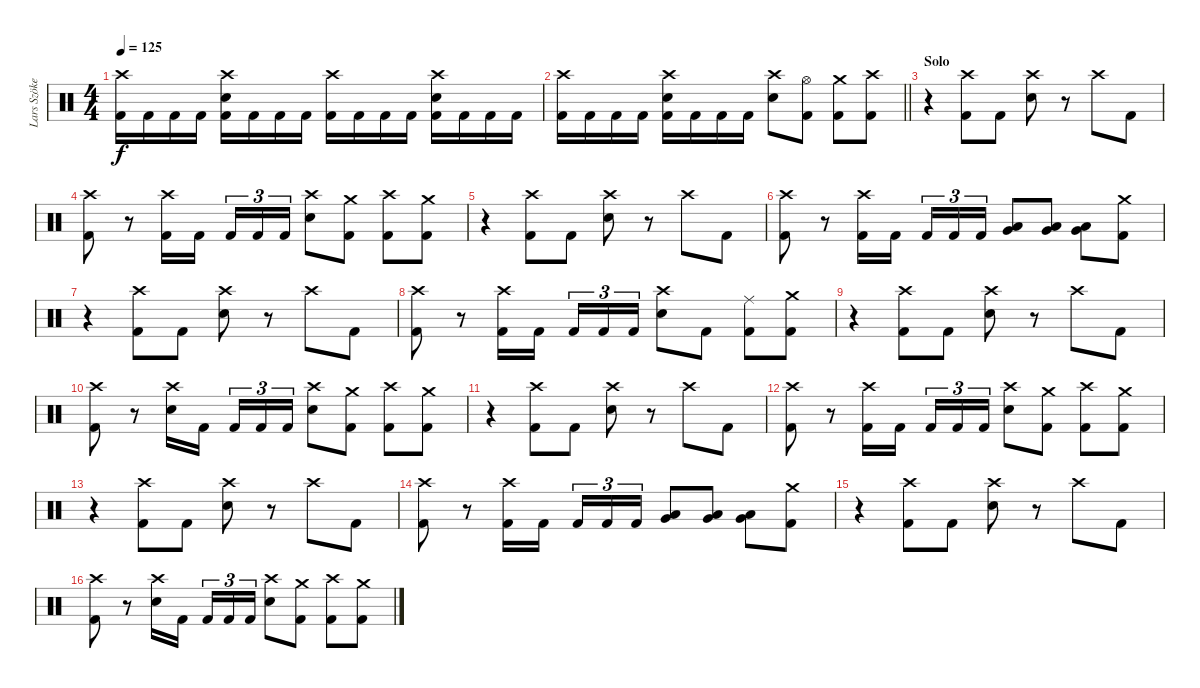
\track ("Lars Szöke" "Lars Szöke") {instrument percussion}
\staff {score}
\articulation defaults
\ts (4 4)
\tempo 125
\clef neutral
\ks c
("Crash high (hit)" "Kick (hit) 2").16{dy f} "Kick (hit) 2".16 "Kick (hit) 2".16 "Kick (hit) 2".16 ("Crash high (hit)" "Snare (hit) 2" "Kick (hit) 2").16 "Kick (hit) 2".16 "Kick (hit) 2".16 "Kick (hit) 2".16 ("Crash high (hit)" "Kick (hit) 2").16 "Kick (hit) 2".16 "Kick (hit) 2".16 "Kick (hit) 2".16 ("Crash high (hit)" "Snare (hit) 2" "Kick (hit) 2").16 "Kick (hit) 2".16 "Kick (hit) 2".16 "Kick (hit) 2".16 |
\barLineRight lightlight
("Crash high (hit)" "Kick (hit) 2").16 "Kick (hit) 2".16 "Kick (hit) 2".16 "Kick (hit) 2".16 ("Crash high (hit)" "Snare (hit) 2" "Kick (hit) 2").16 "Kick (hit) 2".16 "Kick (hit) 2".16 "Kick (hit) 2".16 ("Crash high (hit)" "Snare (hit) 2").8 ("Hi-Hat (open)" "Kick (hit) 2").8 ("Crash medium (hit)" "Kick (hit) 2").8 ("Crash high (hit)" "Kick (hit) 2").8 |
\section ("" "Solo")
r.4 ("Crash high (hit)" "Kick (hit) 2").8 "Kick (hit) 2".8 ("Crash high (hit)" "Snare (hit) 2").8 r.8 "Crash high (hit)".8 "Kick (hit) 2".8 |
("Crash high (hit)" "Kick (hit) 2").8 r.8 ("Crash high (hit)" "Kick (hit) 2").16 "Kick (hit) 2".16{beam splitsecondary} "Kick (hit) 2".16{tu (3 2)} "Kick (hit) 2".16{tu (3 2)} "Kick (hit) 2".16{tu (3 2)} ("Crash high (hit)" "Snare (hit) 2").8 ("Crash medium (hit)" "Kick (hit) 2").8 ("Crash high (hit)" "Kick (hit) 2").8 ("Crash medium (hit)" "Kick (hit) 2").8 |
r.4 ("Crash high (hit)" "Kick (hit) 2").8 "Kick (hit) 2".8 ("Crash high (hit)" "Snare (hit) 2").8 r.8 "Crash high (hit)".8 "Kick (hit) 2".8 |
("Crash high (hit)" "Kick (hit) 2").8 r.8 ("Crash high (hit)" "Kick (hit) 2").16 "Kick (hit) 2".16{beam splitsecondary} "Kick (hit) 2".16{tu (3 2)} "Kick (hit) 2".16{tu (3 2)} "Kick (hit) 2".16{tu (3 2)} ("Low Tom (hit)" "Very Low Tom (hit)").8 ("Low Tom (hit)" "Very Low Tom (hit)").8 ("Very Low Tom (hit)" "Low Floor Tom (hit)").8 ("Crash medium (hit)" "Kick (hit) 2").8 |
r.4 ("Crash high (hit)" "Kick (hit) 2").8 "Kick (hit) 2".8 ("Crash high (hit)" "Snare (hit) 2").8 r.8 "Crash high (hit)".8 "Kick (hit) 2".8 |
("Crash high (hit)" "Kick (hit) 2").8 r.8 ("Crash high (hit)" "Kick (hit) 2").16 "Kick (hit) 2".16{beam splitsecondary} "Kick (hit) 2".16{tu (3 2)} "Kick (hit) 2".16{tu (3 2)} "Kick (hit) 2".16{tu (3 2)} ("Crash high (hit)" "Snare (hit) 2").8 "Kick (hit) 2".8 ("Ride (middle)" "Kick (hit) 2").8 ("Crash medium (hit)" "Kick (hit) 2").8 |
r.4 ("Crash high (hit)" "Kick (hit) 2").8 "Kick (hit) 2".8 ("Crash high (hit)" "Snare (hit) 2").8 r.8 "Crash high (hit)".8 "Kick (hit) 2".8 |
("Crash high (hit)" "Kick (hit) 2").8 r.8 ("Crash high (hit)" "Snare (hit) 2").16 "Kick (hit) 2".16{beam splitsecondary} "Kick (hit) 2".16{tu (3 2)} "Kick (hit) 2".16{tu (3 2)} "Kick (hit) 2".16{tu (3 2)} ("Crash high (hit)" "Snare (hit) 2").8 ("Crash medium (hit)" "Kick (hit) 2").8 ("Crash high (hit)" "Kick (hit) 2").8 ("Crash medium (hit)" "Kick (hit) 2").8 |
r.4 ("Crash high (hit)" "Kick (hit) 2").8 "Kick (hit) 2".8 ("Crash high (hit)" "Snare (hit) 2").8 r.8 "Crash high (hit)".8 "Kick (hit) 2".8 |
("Crash high (hit)" "Kick (hit) 2").8 r.8 ("Crash high (hit)" "Kick (hit) 2").16 "Kick (hit) 2".16{beam splitsecondary} "Kick (hit) 2".16{tu (3 2)} "Kick (hit) 2".16{tu (3 2)} "Kick (hit) 2".16{tu (3 2)} ("Crash high (hit)" "Snare (hit) 2").8 ("Crash medium (hit)" "Kick (hit) 2").8 ("Crash high (hit)" "Kick (hit) 2").8 ("Crash medium (hit)" "Kick (hit) 2").8 |
r.4 ("Crash high (hit)" "Kick (hit) 2").8 "Kick (hit) 2".8 ("Crash high (hit)" "Snare (hit) 2").8 r.8 "Crash high (hit)".8 "Kick (hit) 2".8 |
("Crash high (hit)" "Kick (hit) 2").8 r.8 ("Crash high (hit)" "Kick (hit) 2").16 "Kick (hit) 2".16{beam splitsecondary} "Kick (hit) 2".16{tu (3 2)} "Kick (hit) 2".16{tu (3 2)} "Kick (hit) 2".16{tu (3 2)} ("Low Tom (hit)" "Very Low Tom (hit)").8 ("Low Tom (hit)" "Very Low Tom (hit)").8 ("Very Low Tom (hit)" "Low Floor Tom (hit)").8 ("Crash medium (hit)" "Kick (hit) 2").8 |
r.4 ("Crash high (hit)" "Kick (hit) 2").8 "Kick (hit) 2".8 ("Crash high (hit)" "Snare (hit) 2").8 r.8 "Crash high (hit)".8 "Kick (hit) 2".8 |
("Crash high (hit)" "Kick (hit) 2").8 r.8 ("Crash high (hit)" "Snare (hit) 2").16 "Kick (hit) 2".16{beam splitsecondary} "Kick (hit) 2".16{tu (3 2)} "Kick (hit) 2".16{tu (3 2)} "Kick (hit) 2".16{tu (3 2)} ("Crash high (hit)" "Snare (hit) 2").8 ("Crash medium (hit)" "Kick (hit) 2").8 ("Crash high (hit)" "Kick (hit) 2").8 ("Crash medium (hit)" "Kick (hit) 2").8
